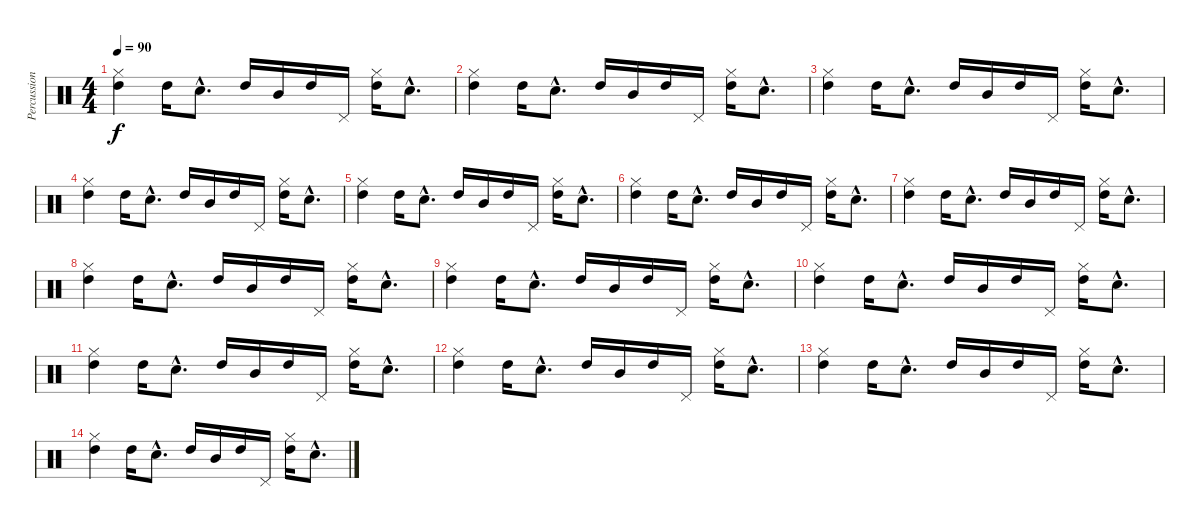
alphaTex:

\track ("Percussions(J.Porcaro)" "Percussion") {instrument percussion}
\staff {score}
\articulation defaults
\ts (4 4)
\tempo 90
\clef neutral
\ks c
("High Tom (hit)" "Hi-Hat (closed)").4{dy f} "High Tom (hit)".16 "Snare (hit) 2"{hac}.8{d} "High Tom (hit)".16 "Mid Tom (hit)".16 "High Tom (hit)".16 "Pedal Hi-Hat (hit)".16 ("High Tom (hit)" "Hi-Hat (closed)").16 "Snare (hit) 2"{hac}.8{d} |
("High Tom (hit)" "Hi-Hat (closed)").4 "High Tom (hit)".16 "Snare (hit) 2"{hac}.8{d} "High Tom (hit)".16 "Mid Tom (hit)".16 "High Tom (hit)".16 "Pedal Hi-Hat (hit)".16 ("High Tom (hit)" "Hi-Hat (closed)").16 "Snare (hit) 2"{hac}.8{d} |
("High Tom (hit)" "Hi-Hat (closed)").4 "High Tom (hit)".16 "Snare (hit) 2"{hac}.8{d} "High Tom (hit)".16 "Mid Tom (hit)".16 "High Tom (hit)".16 "Pedal Hi-Hat (hit)".16 ("High Tom (hit)" "Hi-Hat (closed)").16 "Snare (hit) 2"{hac}.8{d} |
("High Tom (hit)" "Hi-Hat (closed)").4 "High Tom (hit)".16 "Snare (hit) 2"{hac}.8{d} "High Tom (hit)".16 "Mid Tom (hit)".16 "High Tom (hit)".16 "Pedal Hi-Hat (hit)".16 ("High Tom (hit)" "Hi-Hat (closed)").16 "Snare (hit) 2"{hac}.8{d} |
("High Tom (hit)" "Hi-Hat (closed)").4 "High Tom (hit)".16 "Snare (hit) 2"{hac}.8{d} "High Tom (hit)".16 "Mid Tom (hit)".16 "High Tom (hit)".16 "Pedal Hi-Hat (hit)".16 ("High Tom (hit)" "Hi-Hat (closed)").16 "Snare (hit) 2"{hac}.8{d} |
("High Tom (hit)" "Hi-Hat (closed)").4 "High Tom (hit)".16 "Snare (hit) 2"{hac}.8{d} "High Tom (hit)".16 "Mid Tom (hit)".16 "High Tom (hit)".16 "Pedal Hi-Hat (hit)".16 ("High Tom (hit)" "Hi-Hat (closed)").16 "Snare (hit) 2"{hac}.8{d} |
("High Tom (hit)" "Hi-Hat (closed)").4 "High Tom (hit)".16 "Snare (hit) 2"{hac}.8{d} "High Tom (hit)".16 "Mid Tom (hit)".16 "High Tom (hit)".16 "Pedal Hi-Hat (hit)".16 ("High Tom (hit)" "Hi-Hat (closed)").16 "Snare (hit) 2"{hac}.8{d} |
("High Tom (hit)" "Hi-Hat (closed)").4 "High Tom (hit)".16 "Snare (hit) 2"{hac}.8{d} "High Tom (hit)".16 "Mid Tom (hit)".16 "High Tom (hit)".16 "Pedal Hi-Hat (hit)".16 ("High Tom (hit)" "Hi-Hat (closed)").16 "Snare (hit) 2"{hac}.8{d} |
("High Tom (hit)" "Hi-Hat (closed)").4 "High Tom (hit)".16 "Snare (hit) 2"{hac}.8{d} "High Tom (hit)".16 "Mid Tom (hit)".16 "High Tom (hit)".16 "Pedal Hi-Hat (hit)".16 ("High Tom (hit)" "Hi-Hat (closed)").16 "Snare (hit) 2"{hac}.8{d} |
("High Tom (hit)" "Hi-Hat (closed)").4 "High Tom (hit)".16 "Snare (hit) 2"{hac}.8{d} "High Tom (hit)".16 "Mid Tom (hit)".16 "High Tom (hit)".16 "Pedal Hi-Hat (hit)".16 ("High Tom (hit)" "Hi-Hat (closed)").16 "Snare (hit) 2"{hac}.8{d} |
("High Tom (hit)" "Hi-Hat (closed)").4 "High Tom (hit)".16 "Snare (hit) 2"{hac}.8{d} "High Tom (hit)".16 "Mid Tom (hit)".16 "High Tom (hit)".16 "Pedal Hi-Hat (hit)".16 ("High Tom (hit)" "Hi-Hat (closed)").16 "Snare (hit) 2"{hac}.8{d} |
("High Tom (hit)" "Hi-Hat (closed)").4 "High Tom (hit)".16 "Snare (hit) 2"{hac}.8{d} "High Tom (hit)".16 "Mid Tom (hit)".16 "High Tom (hit)".16 "Pedal Hi-Hat (hit)".16 ("High Tom (hit)" "Hi-Hat (closed)").16 "Snare (hit) 2"{hac}.8{d} |
("High Tom (hit)" "Hi-Hat (closed)").4 "High Tom (hit)".16 "Snare (hit) 2"{hac}.8{d} "High Tom (hit)".16 "Mid Tom (hit)".16 "High Tom (hit)".16 "Pedal Hi-Hat (hit)".16 ("High Tom (hit)" "Hi-Hat (closed)").16 "Snare (hit) 2"{hac}.8{d} |
("High Tom (hit)" "Hi-Hat (closed)").4 "High Tom (hit)".16 "Snare (hit) 2"{hac}.8{d} "High Tom (hit)".16 "Mid Tom (hit)".16 "High Tom (hit)".16 "Pedal Hi-Hat (hit)".16 ("High Tom (hit)" "Hi-Hat (closed)").16 "Snare (hit) 2"{hac}.8{d}
